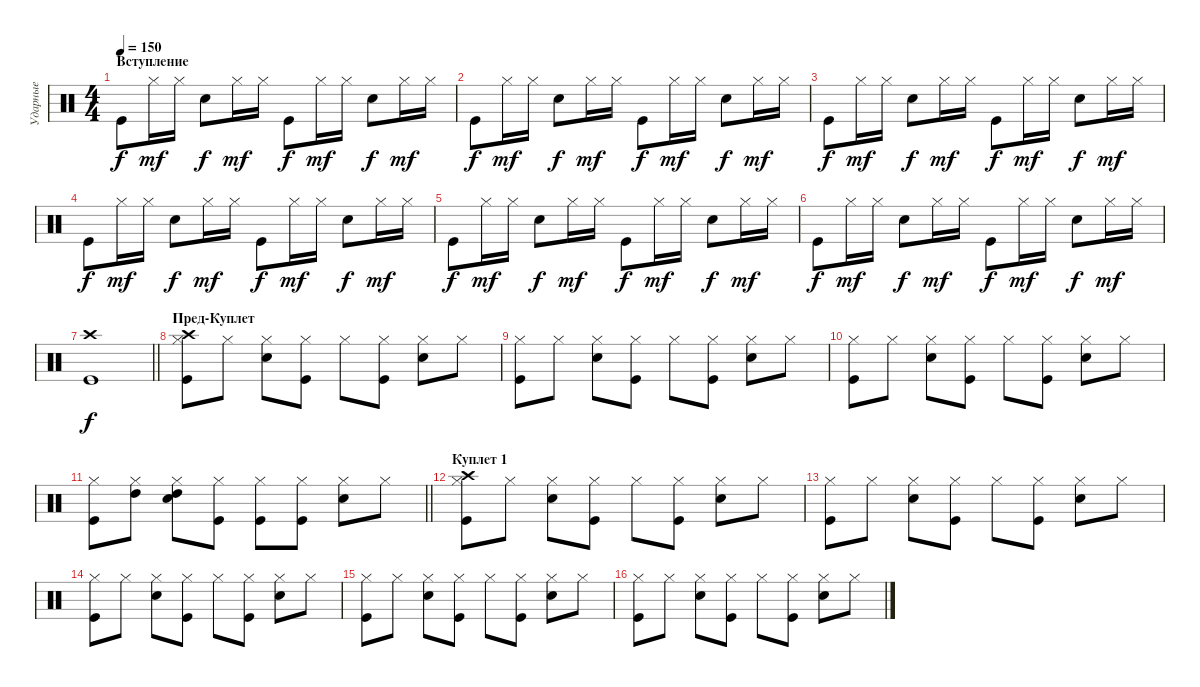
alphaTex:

\track ("Ударные" "Ударные") {instrument percussion}
\staff {score}
\articulation defaults
\ts (4 4)
\section ("" "Вступление")
\tempo 150
\clef neutral
\ks c "Kick (hit)".8{dy f} "Hi-Hat (closed)".16{dy mf} "Hi-Hat (closed)".16 "Snare (hit) 2".8{dy f} "Hi-Hat (closed)".16{dy mf} "Hi-Hat (closed)".16 "Kick (hit)".8{dy f} "Hi-Hat (closed)".16{dy mf} "Hi-Hat (closed)".16 "Snare (hit) 2".8{dy f} "Hi-Hat (closed)".16{dy mf} "Hi-Hat (closed)".16
|
"Kick (hit)".8{dy f} "Hi-Hat (closed)".16{dy mf} "Hi-Hat (closed)".16 "Snare (hit) 2".8{dy f} "Hi-Hat (closed)".16{dy mf} "Hi-Hat (closed)".16 "Kick (hit)".8{dy f} "Hi-Hat (closed)".16{dy mf} "Hi-Hat (closed)".16 "Snare (hit) 2".8{dy f} "Hi-Hat (closed)".16{dy mf} "Hi-Hat (closed)".16 |
"Kick (hit)".8{dy f} "Hi-Hat (closed)".16{dy mf} "Hi-Hat (closed)".16 "Snare (hit) 2".8{dy f} "Hi-Hat (closed)".16{dy mf} "Hi-Hat (closed)".16 "Kick (hit)".8{dy f} "Hi-Hat (closed)".16{dy mf} "Hi-Hat (closed)".16 "Snare (hit) 2".8{dy f} "Hi-Hat (closed)".16{dy mf} "Hi-Hat (closed)".16 |
"Kick (hit)".8{dy f} "Hi-Hat (closed)".16{dy mf} "Hi-Hat (closed)".16 "Snare (hit) 2".8{dy f} "Hi-Hat (closed)".16{dy mf} "Hi-Hat (closed)".16 "Kick (hit)".8{dy f} "Hi-Hat (closed)".16{dy mf} "Hi-Hat (closed)".16 "Snare (hit) 2".8{dy f} "Hi-Hat (closed)".16{dy mf} "Hi-Hat (closed)".16 |
"Kick (hit)".8{dy f} "Hi-Hat (closed)".16{dy mf} "Hi-Hat (closed)".16 "Snare (hit) 2".8{dy f} "Hi-Hat (closed)".16{dy mf} "Hi-Hat (closed)".16 "Kick (hit)".8{dy f} "Hi-Hat (closed)".16{dy mf} "Hi-Hat (closed)".16 "Snare (hit) 2".8{dy f} "Hi-Hat (closed)".16{dy mf} "Hi-Hat (closed)".16 |
"Kick (hit)".8{dy f} "Hi-Hat (closed)".16{dy mf} "Hi-Hat (closed)".16 "Snare (hit) 2".8{dy f} "Hi-Hat (closed)".16{dy mf} "Hi-Hat (closed)".16 "Kick (hit)".8{dy f} "Hi-Hat (closed)".16{dy mf} "Hi-Hat (closed)".16 "Snare (hit) 2".8{dy f} "Hi-Hat (closed)".16{dy mf} "Hi-Hat (closed)".16 |
\barLineRight lightlight
("Kick (hit)" "Crash high (hit)").1{dy f} |
\section ("" "Пред-Куплет")
("Kick (hit)" "Hi-Hat (closed)" "Crash high (hit)").8 "Hi-Hat (closed)".8 ("Snare (hit) 2" "Hi-Hat (closed)").8 ("Kick (hit)" "Hi-Hat (closed)").8 "Hi-Hat (closed)".8 ("Kick (hit)" "Hi-Hat (closed)").8 ("Snare (hit) 2" "Hi-Hat (closed)").8 "Hi-Hat (closed)".8 |
("Kick (hit)" "Hi-Hat (closed)").8 "Hi-Hat (closed)".8 ("Snare (hit) 2" "Hi-Hat (closed)").8 ("Kick (hit)" "Hi-Hat (closed)").8 "Hi-Hat (closed)".8 ("Kick (hit)" "Hi-Hat (closed)").8 ("Snare (hit) 2" "Hi-Hat (closed)").8 "Hi-Hat (closed)".8 |
("Kick (hit)" "Hi-Hat (closed)").8 "Hi-Hat (closed)".8 ("Snare (hit) 2" "Hi-Hat (closed)").8 ("Kick (hit)" "Hi-Hat (closed)").8 "Hi-Hat (closed)".8 ("Kick (hit)" "Hi-Hat (closed)").8 ("Snare (hit) 2" "Hi-Hat (closed)").8 "Hi-Hat (closed)".8 |
\barLineRight lightlight
("Kick (hit)" "Hi-Hat (closed)").8 ("Hi-Hat (closed)" "High Tom (hit)").8 ("Snare (hit) 2" "Hi-Hat (closed)" "High Tom (hit)").8 ("Kick (hit)" "Hi-Hat (closed)").8 ("Kick (hit)" "Hi-Hat (closed)").8 ("Kick (hit)" "Hi-Hat (closed)").8 ("Snare (hit) 2" "Hi-Hat (closed)").8 "Hi-Hat (closed)".8 |
\section ("" "Куплет 1")
("Kick (hit)" "Hi-Hat (closed)" "Crash high (hit)").8 "Hi-Hat (closed)".8 ("Snare (hit) 2" "Hi-Hat (closed)").8 ("Kick (hit)" "Hi-Hat (closed)").8 "Hi-Hat (closed)".8 ("Kick (hit)" "Hi-Hat (closed)").8 ("Snare (hit) 2" "Hi-Hat (closed)").8 "Hi-Hat (closed)".8 |
("Kick (hit)" "Hi-Hat (closed)").8 "Hi-Hat (closed)".8 ("Snare (hit) 2" "Hi-Hat (closed)").8 ("Kick (hit)" "Hi-Hat (closed)").8 "Hi-Hat (closed)".8 ("Kick (hit)" "Hi-Hat (closed)").8 ("Snare (hit) 2" "Hi-Hat (closed)").8 "Hi-Hat (closed)".8 |
("Kick (hit)" "Hi-Hat (closed)").8 "Hi-Hat (closed)".8 ("Snare (hit) 2" "Hi-Hat (closed)").8 ("Kick (hit)" "Hi-Hat (closed)").8 "Hi-Hat (closed)".8 ("Kick (hit)" "Hi-Hat (closed)").8 ("Snare (hit) 2" "Hi-Hat (closed)").8 "Hi-Hat (closed)".8 |
("Kick (hit)" "Hi-Hat (closed)").8 "Hi-Hat (closed)".8 ("Snare (hit) 2" "Hi-Hat (closed)").8 ("Kick (hit)" "Hi-Hat (closed)").8 "Hi-Hat (closed)".8 ("Kick (hit)" "Hi-Hat (closed)").8 ("Snare (hit) 2" "Hi-Hat (closed)").8 "Hi-Hat (closed)".8 |
("Kick (hit)" "Hi-Hat (closed)").8 "Hi-Hat (closed)".8 ("Snare (hit) 2" "Hi-Hat (closed)").8 ("Kick (hit)" "Hi-Hat (closed)").8 "Hi-Hat (closed)".8 ("Kick (hit)" "Hi-Hat (closed)").8 ("Snare (hit) 2" "Hi-Hat (closed)").8 "Hi-Hat (closed)".8
